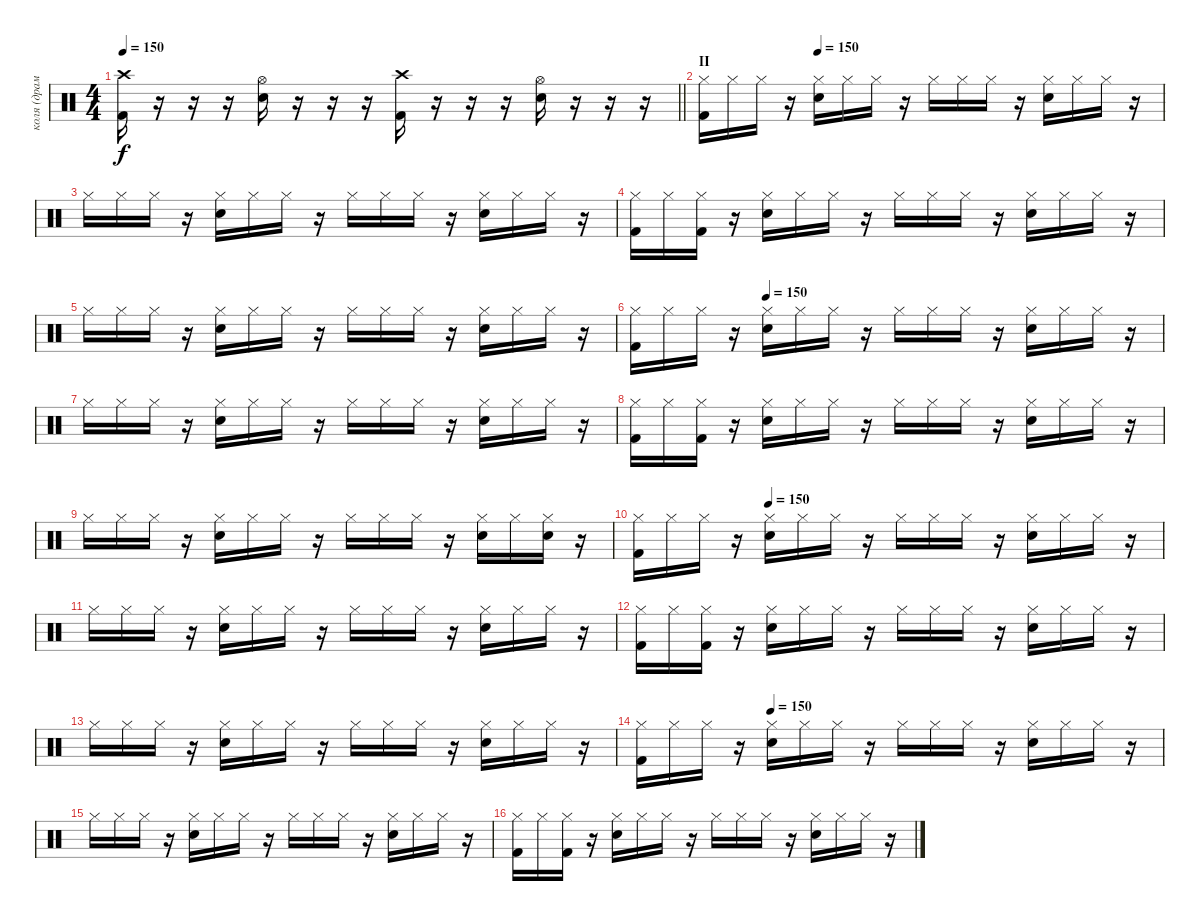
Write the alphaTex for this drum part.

\track ("коля (драммы)" "коля (драм") {instrument percussion}
\staff {score}
\articulation defaults
\ts (4 4)
\tempo 150
\clef neutral
\barLineRight lightlight
\ks c
("Kick (hit) 2" "Crash high (hit)").16{dy f} r.16 r.16 r.16 ("Snare (hit) 2" "Hi-Hat (open)").16 r.16 r.16 r.16 ("Kick (hit) 2" "Crash high (hit)").16 r.16 r.16 r.16 ("Snare (hit) 2" "Hi-Hat (open)").16 r.16 r.16 r.16 |
\section ("" "II")
\tempo (150 0.25)
("Kick (hit) 2" "Hi-Hat (closed)").16 "Hi-Hat (closed)".16 "Hi-Hat (closed)".16 r.16 ("Snare (hit) 2" "Hi-Hat (closed)").16 "Hi-Hat (closed)".16 "Hi-Hat (closed)".16 r.16 "Hi-Hat (closed)".16 "Hi-Hat (closed)".16 "Hi-Hat (closed)".16 r.16 ("Snare (hit) 2" "Hi-Hat (closed)").16 "Hi-Hat (closed)".16 "Hi-Hat (closed)".16 r.16 |
"Hi-Hat (closed)".16 "Hi-Hat (closed)".16 "Hi-Hat (closed)".16 r.16 ("Snare (hit) 2" "Hi-Hat (closed)").16 "Hi-Hat (closed)".16 "Hi-Hat (closed)".16 r.16 "Hi-Hat (closed)".16 "Hi-Hat (closed)".16 "Hi-Hat (closed)".16 r.16 ("Snare (hit) 2" "Hi-Hat (closed)").16 "Hi-Hat (closed)".16 "Hi-Hat (closed)".16 r.16 |
("Kick (hit) 2" "Hi-Hat (closed)").16 "Hi-Hat (closed)".16 ("Kick (hit) 2" "Hi-Hat (closed)").16 r.16 ("Snare (hit) 2" "Hi-Hat (closed)").16 "Hi-Hat (closed)".16 "Hi-Hat (closed)".16 r.16 "Hi-Hat (closed)".16 "Hi-Hat (closed)".16 "Hi-Hat (closed)".16 r.16 ("Snare (hit) 2" "Hi-Hat (closed)").16 "Hi-Hat (closed)".16 "Hi-Hat (closed)".16 r.16 |
"Hi-Hat (closed)".16 "Hi-Hat (closed)".16 "Hi-Hat (closed)".16 r.16 ("Snare (hit) 2" "Hi-Hat (closed)").16 "Hi-Hat (closed)".16 "Hi-Hat (closed)".16 r.16 "Hi-Hat (closed)".16 "Hi-Hat (closed)".16 "Hi-Hat (closed)".16 r.16 ("Snare (hit) 2" "Hi-Hat (closed)").16 "Hi-Hat (closed)".16 "Hi-Hat (closed)".16 r.16 |
\tempo (150 0.25)
("Kick (hit) 2" "Hi-Hat (closed)").16 "Hi-Hat (closed)".16 "Hi-Hat (closed)".16 r.16 ("Snare (hit) 2" "Hi-Hat (closed)").16 "Hi-Hat (closed)".16 "Hi-Hat (closed)".16 r.16 "Hi-Hat (closed)".16 "Hi-Hat (closed)".16 "Hi-Hat (closed)".16 r.16 ("Snare (hit) 2" "Hi-Hat (closed)").16 "Hi-Hat (closed)".16 "Hi-Hat (closed)".16 r.16 |
"Hi-Hat (closed)".16 "Hi-Hat (closed)".16 "Hi-Hat (closed)".16 r.16 ("Snare (hit) 2" "Hi-Hat (closed)").16 "Hi-Hat (closed)".16 "Hi-Hat (closed)".16 r.16 "Hi-Hat (closed)".16 "Hi-Hat (closed)".16 "Hi-Hat (closed)".16 r.16 ("Snare (hit) 2" "Hi-Hat (closed)").16 "Hi-Hat (closed)".16 "Hi-Hat (closed)".16 r.16 |
("Kick (hit) 2" "Hi-Hat (closed)").16 "Hi-Hat (closed)".16 ("Kick (hit) 2" "Hi-Hat (closed)").16 r.16 ("Snare (hit) 2" "Hi-Hat (closed)").16 "Hi-Hat (closed)".16 "Hi-Hat (closed)".16 r.16 "Hi-Hat (closed)".16 "Hi-Hat (closed)".16 "Hi-Hat (closed)".16 r.16 ("Snare (hit) 2" "Hi-Hat (closed)").16 "Hi-Hat (closed)".16 "Hi-Hat (closed)".16 r.16 |
"Hi-Hat (closed)".16 "Hi-Hat (closed)".16 "Hi-Hat (closed)".16 r.16 ("Snare (hit) 2" "Hi-Hat (closed)").16 "Hi-Hat (closed)".16 "Hi-Hat (closed)".16 r.16 "Hi-Hat (closed)".16 "Hi-Hat (closed)".16 "Hi-Hat (closed)".16 r.16 ("Snare (hit) 2" "Hi-Hat (closed)").16 "Hi-Hat (closed)".16 ("Snare (hit) 2" "Hi-Hat (closed)").16 r.16 |
\tempo (150 0.25)
("Kick (hit) 2" "Hi-Hat (closed)").16 "Hi-Hat (closed)".16 "Hi-Hat (closed)".16 r.16 ("Snare (hit) 2" "Hi-Hat (closed)").16 "Hi-Hat (closed)".16 "Hi-Hat (closed)".16 r.16 "Hi-Hat (closed)".16 "Hi-Hat (closed)".16 "Hi-Hat (closed)".16 r.16 ("Snare (hit) 2" "Hi-Hat (closed)").16 "Hi-Hat (closed)".16 "Hi-Hat (closed)".16 r.16 |
"Hi-Hat (closed)".16 "Hi-Hat (closed)".16 "Hi-Hat (closed)".16 r.16 ("Snare (hit) 2" "Hi-Hat (closed)").16 "Hi-Hat (closed)".16 "Hi-Hat (closed)".16 r.16 "Hi-Hat (closed)".16 "Hi-Hat (closed)".16 "Hi-Hat (closed)".16 r.16 ("Snare (hit) 2" "Hi-Hat (closed)").16 "Hi-Hat (closed)".16 "Hi-Hat (closed)".16 r.16 |
("Kick (hit) 2" "Hi-Hat (closed)").16 "Hi-Hat (closed)".16 ("Kick (hit) 2" "Hi-Hat (closed)").16 r.16 ("Snare (hit) 2" "Hi-Hat (closed)").16 "Hi-Hat (closed)".16 "Hi-Hat (closed)".16 r.16 "Hi-Hat (closed)".16 "Hi-Hat (closed)".16 "Hi-Hat (closed)".16 r.16 ("Snare (hit) 2" "Hi-Hat (closed)").16 "Hi-Hat (closed)".16 "Hi-Hat (closed)".16 r.16 |
"Hi-Hat (closed)".16 "Hi-Hat (closed)".16 "Hi-Hat (closed)".16 r.16 ("Snare (hit) 2" "Hi-Hat (closed)").16 "Hi-Hat (closed)".16 "Hi-Hat (closed)".16 r.16 "Hi-Hat (closed)".16 "Hi-Hat (closed)".16 "Hi-Hat (closed)".16 r.16 ("Snare (hit) 2" "Hi-Hat (closed)").16 "Hi-Hat (closed)".16 "Hi-Hat (closed)".16 r.16 |
\tempo (150 0.25)
("Kick (hit) 2" "Hi-Hat (closed)").16 "Hi-Hat (closed)".16 "Hi-Hat (closed)".16 r.16 ("Snare (hit) 2" "Hi-Hat (closed)").16 "Hi-Hat (closed)".16 "Hi-Hat (closed)".16 r.16 "Hi-Hat (closed)".16 "Hi-Hat (closed)".16 "Hi-Hat (closed)".16 r.16 ("Snare (hit) 2" "Hi-Hat (closed)").16 "Hi-Hat (closed)".16 "Hi-Hat (closed)".16 r.16 |
"Hi-Hat (closed)".16 "Hi-Hat (closed)".16 "Hi-Hat (closed)".16 r.16 ("Snare (hit) 2" "Hi-Hat (closed)").16 "Hi-Hat (closed)".16 "Hi-Hat (closed)".16 r.16 "Hi-Hat (closed)".16 "Hi-Hat (closed)".16 "Hi-Hat (closed)".16 r.16 ("Snare (hit) 2" "Hi-Hat (closed)").16 "Hi-Hat (closed)".16 "Hi-Hat (closed)".16 r.16 |
("Kick (hit) 2" "Hi-Hat (closed)").16 "Hi-Hat (closed)".16 ("Kick (hit) 2" "Hi-Hat (closed)").16 r.16 ("Snare (hit) 2" "Hi-Hat (closed)").16 "Hi-Hat (closed)".16 "Hi-Hat (closed)".16 r.16 "Hi-Hat (closed)".16 "Hi-Hat (closed)".16 "Hi-Hat (closed)".16 r.16 ("Snare (hit) 2" "Hi-Hat (closed)").16 "Hi-Hat (closed)".16 "Hi-Hat (closed)".16 r.16
